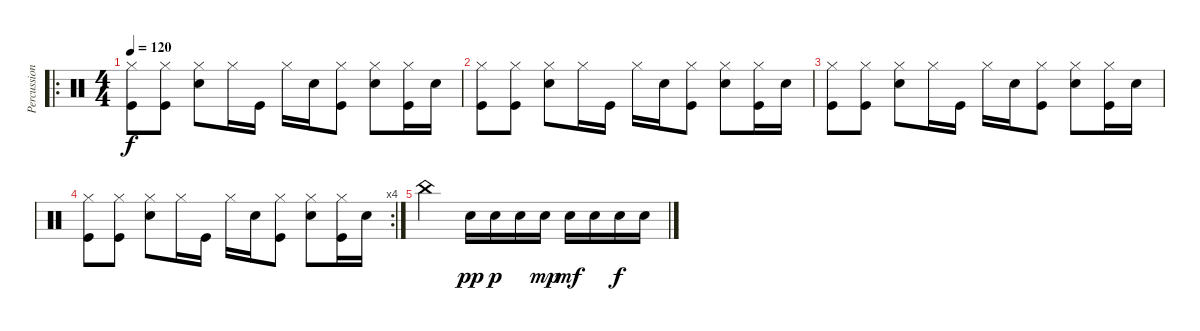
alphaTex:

\track ("Percussion" "Percussion") {instrument percussion}
\staff {score}
\articulation defaults
\ro
\ts (4 4)
\tempo 120
\clef neutral
\ks c
("Hi-Hat (closed)" "Kick (hit)").8{dy f} ("Hi-Hat (closed)" "Kick (hit)").8 ("Hi-Hat (closed)" "Electric Snare (hit)").8 "Hi-Hat (closed)".16 "Kick (hit)".16 "Hi-Hat (closed)".16 "Electric Snare (hit)".16 ("Hi-Hat (closed)" "Kick (hit)").8 ("Hi-Hat (closed)" "Electric Snare (hit)").8 ("Hi-Hat (closed)" "Kick (hit)").16 "Electric Snare (hit)".16 |
("Hi-Hat (closed)" "Kick (hit)").8 ("Hi-Hat (closed)" "Kick (hit)").8 ("Hi-Hat (closed)" "Electric Snare (hit)").8 "Hi-Hat (closed)".16 "Kick (hit)".16 "Hi-Hat (closed)".16 "Electric Snare (hit)".16 ("Hi-Hat (closed)" "Kick (hit)").8 ("Hi-Hat (closed)" "Electric Snare (hit)").8 ("Hi-Hat (closed)" "Kick (hit)").16 "Electric Snare (hit)".16 |
("Hi-Hat (closed)" "Kick (hit)").8 ("Hi-Hat (closed)" "Kick (hit)").8 ("Hi-Hat (closed)" "Electric Snare (hit)").8 "Hi-Hat (closed)".16 "Kick (hit)".16 "Hi-Hat (closed)".16 "Electric Snare (hit)".16 ("Hi-Hat (closed)" "Kick (hit)").8 ("Hi-Hat (closed)" "Electric Snare (hit)").8 ("Hi-Hat (closed)" "Kick (hit)").16 "Electric Snare (hit)".16 |
\rc 4
("Hi-Hat (closed)" "Kick (hit)").8 ("Hi-Hat (closed)" "Kick (hit)").8 ("Hi-Hat (closed)" "Electric Snare (hit)").8 "Hi-Hat (closed)".16 "Kick (hit)".16 "Hi-Hat (closed)".16 "Electric Snare (hit)".16 ("Hi-Hat (closed)" "Kick (hit)").8 ("Hi-Hat (closed)" "Electric Snare (hit)").8 ("Hi-Hat (closed)" "Kick (hit)").16 "Electric Snare (hit)".16 |
"China (hit)".2 "Electric Snare (hit)".16{dy pp} "Electric Snare (hit)".16{dy p} "Electric Snare (hit)".16 "Electric Snare (hit)".16{dy mp} "Electric Snare (hit)".16{dy mf} "Electric Snare (hit)".16 "Electric Snare (hit)".16{dy f} "Electric Snare (hit)".16
